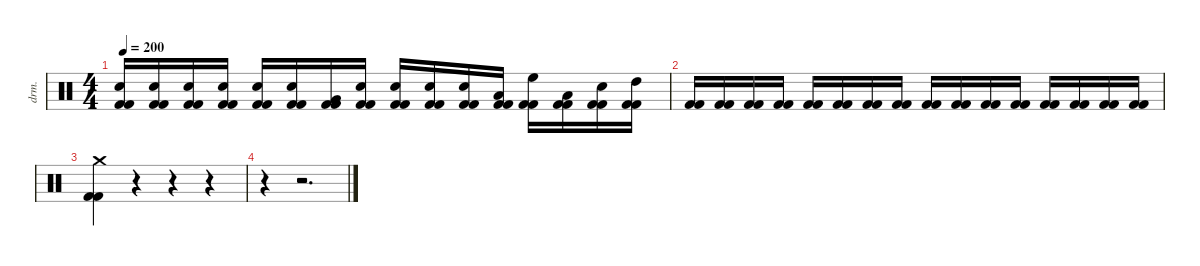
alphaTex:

\defaultSystemsLayout 4
\hideDynamics
\bracketExtendMode nobrackets
\track ("Perkusja" "drm.") {instrument percussion}
\staff {score}
\articulation defaults
\ts (4 4)
\tempo 200
\clef neutral
\ks c
("Snare (hit) 2" "Kick (hit) 2" "Kick (hit) 2").16{dy f} ("Snare (hit) 2" "Kick (hit) 2" "Kick (hit) 2").16 ("Snare (hit) 2" "Kick (hit) 2" "Kick (hit) 2").16 ("Snare (hit) 2" "Kick (hit) 2" "Kick (hit) 2").16 ("Snare (hit) 2" "Kick (hit) 2" "Kick (hit) 2").16 ("Snare (hit) 2" "Kick (hit) 2" "Kick (hit) 2").16 ("Very Low Tom (hit)" "Kick (hit) 2" "Kick (hit) 2").16 ("Snare (hit) 2" "Kick (hit) 2" "Kick (hit) 2").16 ("Snare (hit) 2" "Kick (hit) 2" "Kick (hit) 2").16 ("Snare (hit) 2" "Kick (hit) 2" "Kick (hit) 2").16 ("Snare (hit) 2" "Kick (hit) 2" "Kick (hit) 2").16 ("Low Floor Tom (hit)" "Kick (hit) 2" "Kick (hit) 2").16 ("High Floor Tom (hit)" "Kick (hit) 2" "Kick (hit) 2").16 ("Low Floor Tom (hit)" "Kick (hit) 2" "Kick (hit) 2").16 ("Snare (hit) 2" "Kick (hit) 2" "Kick (hit) 2").16 ("High Tom (hit)" "Kick (hit) 2" "Kick (hit) 2").16 |
("Kick (hit) 2" "Kick (hit) 2").16 ("Kick (hit) 2" "Kick (hit) 2").16 ("Kick (hit) 2" "Kick (hit) 2").16 ("Kick (hit) 2" "Kick (hit) 2").16 ("Kick (hit) 2" "Kick (hit) 2").16 ("Kick (hit) 2" "Kick (hit) 2").16 ("Kick (hit) 2" "Kick (hit) 2").16 ("Kick (hit) 2" "Kick (hit) 2").16 ("Kick (hit) 2" "Kick (hit) 2").16 ("Kick (hit) 2" "Kick (hit) 2").16 ("Kick (hit) 2" "Kick (hit) 2").16 ("Kick (hit) 2" "Kick (hit) 2").16 ("Kick (hit) 2" "Kick (hit) 2").16 ("Kick (hit) 2" "Kick (hit) 2").16 ("Kick (hit) 2" "Kick (hit) 2").16 ("Kick (hit) 2" "Kick (hit) 2").16 |
("Crash medium (hit)" "Kick (hit) 2" "Kick (hit) 2").4 r.4 r.4 r.4 |
r.4 r.2{d}
